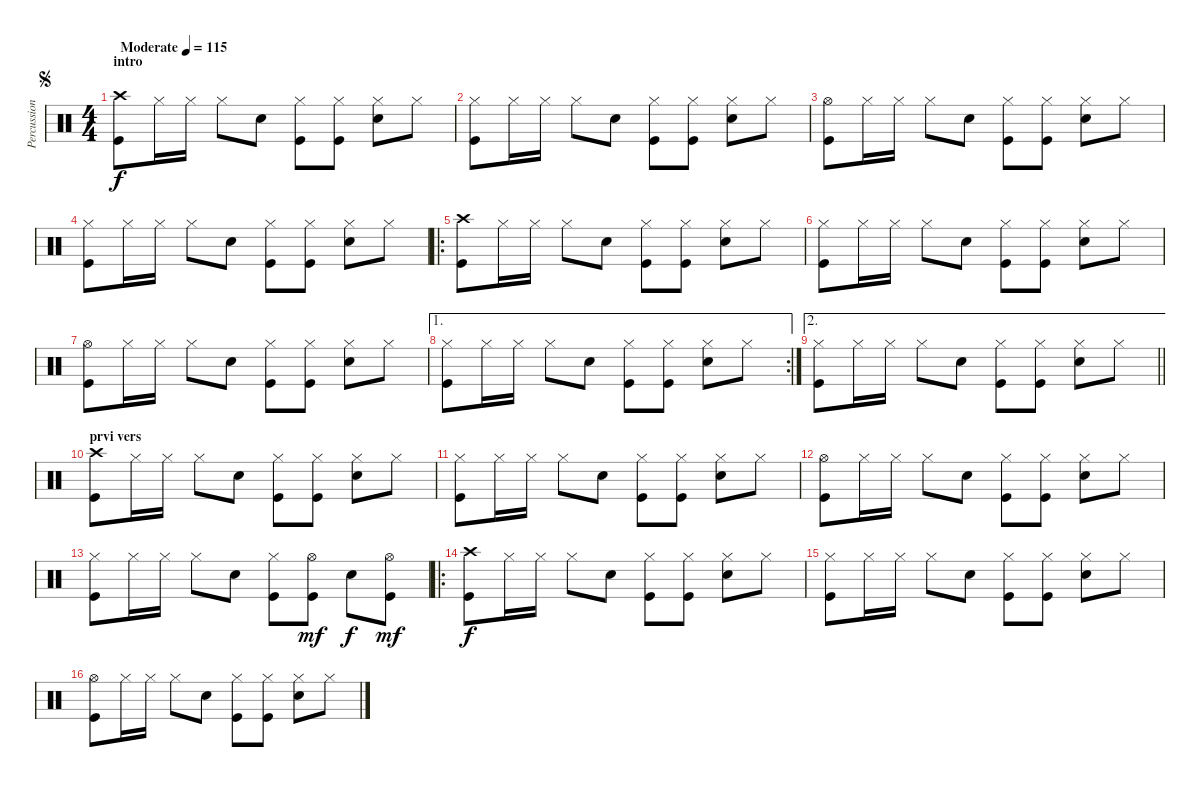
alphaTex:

\track ("Percussion" "Percussion") {instrument percussion}
\staff {score}
\articulation defaults
\ts (4 4)
\section ("" "intro")
\jump segno
\tempo (115 "Moderate")
\clef neutral
\ks c
("Crash high (hit)" "Kick (hit)").8{dy f} "Hi-Hat (closed)".16 "Hi-Hat (closed)".16 "Hi-Hat (closed)".8 "Electric Snare (hit)".8 ("Hi-Hat (closed)" "Kick (hit)").8 ("Hi-Hat (closed)" "Kick (hit)").8 ("Hi-Hat (closed)" "Electric Snare (hit)").8 "Hi-Hat (closed)".8 |
("Hi-Hat (closed)" "Kick (hit)").8 "Hi-Hat (closed)".16 "Hi-Hat (closed)".16 "Hi-Hat (closed)".8 "Electric Snare (hit)".8 ("Hi-Hat (closed)" "Kick (hit)").8 ("Hi-Hat (closed)" "Kick (hit)").8 ("Hi-Hat (closed)" "Electric Snare (hit)").8 "Hi-Hat (closed)".8 |
("Hi-Hat (open)" "Kick (hit)").8 "Hi-Hat (closed)".16 "Hi-Hat (closed)".16 "Hi-Hat (closed)".8 "Electric Snare (hit)".8 ("Hi-Hat (closed)" "Kick (hit)").8 ("Hi-Hat (closed)" "Kick (hit)").8 ("Hi-Hat (closed)" "Electric Snare (hit)").8 "Hi-Hat (closed)".8 |
("Hi-Hat (closed)" "Kick (hit)").8 "Hi-Hat (closed)".16 "Hi-Hat (closed)".16 "Hi-Hat (closed)".8 "Electric Snare (hit)".8 ("Hi-Hat (closed)" "Kick (hit)").8 ("Hi-Hat (closed)" "Kick (hit)").8 ("Hi-Hat (closed)" "Electric Snare (hit)").8 "Hi-Hat (closed)".8 |
\ro
("Crash high (hit)" "Kick (hit)").8 "Hi-Hat (closed)".16 "Hi-Hat (closed)".16 "Hi-Hat (closed)".8 "Electric Snare (hit)".8 ("Hi-Hat (closed)" "Kick (hit)").8 ("Hi-Hat (closed)" "Kick (hit)").8 ("Hi-Hat (closed)" "Electric Snare (hit)").8 "Hi-Hat (closed)".8 |
("Hi-Hat (closed)" "Kick (hit)").8 "Hi-Hat (closed)".16 "Hi-Hat (closed)".16 "Hi-Hat (closed)".8 "Electric Snare (hit)".8 ("Hi-Hat (closed)" "Kick (hit)").8 ("Hi-Hat (closed)" "Kick (hit)").8 ("Hi-Hat (closed)" "Electric Snare (hit)").8 "Hi-Hat (closed)".8 |
("Hi-Hat (open)" "Kick (hit)").8 "Hi-Hat (closed)".16 "Hi-Hat (closed)".16 "Hi-Hat (closed)".8 "Electric Snare (hit)".8 ("Hi-Hat (closed)" "Kick (hit)").8 ("Hi-Hat (closed)" "Kick (hit)").8 ("Hi-Hat (closed)" "Electric Snare (hit)").8 "Hi-Hat (closed)".8 |
\ae 1
\rc 2
("Hi-Hat (closed)" "Kick (hit)").8 "Hi-Hat (closed)".16 "Hi-Hat (closed)".16 "Hi-Hat (closed)".8 "Electric Snare (hit)".8 ("Hi-Hat (closed)" "Kick (hit)").8 ("Hi-Hat (closed)" "Kick (hit)").8 ("Hi-Hat (closed)" "Electric Snare (hit)").8 "Hi-Hat (closed)".8 |
\ae 2
\barLineRight lightlight
("Hi-Hat (closed)" "Kick (hit)").8 "Hi-Hat (closed)".16 "Hi-Hat (closed)".16 "Hi-Hat (closed)".8 "Electric Snare (hit)".8 ("Hi-Hat (closed)" "Kick (hit)").8 ("Hi-Hat (closed)" "Kick (hit)").8 ("Hi-Hat (closed)" "Electric Snare (hit)").8 "Hi-Hat (closed)".8 |
\section ("" "prvi vers")
("Crash high (hit)" "Kick (hit)").8 "Hi-Hat (closed)".16 "Hi-Hat (closed)".16 "Hi-Hat (closed)".8 "Electric Snare (hit)".8 ("Hi-Hat (closed)" "Kick (hit)").8 ("Hi-Hat (closed)" "Kick (hit)").8 ("Hi-Hat (closed)" "Electric Snare (hit)").8 "Hi-Hat (closed)".8 |
("Hi-Hat (closed)" "Kick (hit)").8 "Hi-Hat (closed)".16 "Hi-Hat (closed)".16 "Hi-Hat (closed)".8 "Electric Snare (hit)".8 ("Hi-Hat (closed)" "Kick (hit)").8 ("Hi-Hat (closed)" "Kick (hit)").8 ("Hi-Hat (closed)" "Electric Snare (hit)").8 "Hi-Hat (closed)".8 |
("Hi-Hat (open)" "Kick (hit)").8 "Hi-Hat (closed)".16 "Hi-Hat (closed)".16 "Hi-Hat (closed)".8 "Electric Snare (hit)".8 ("Hi-Hat (closed)" "Kick (hit)").8 ("Hi-Hat (closed)" "Kick (hit)").8 ("Hi-Hat (closed)" "Electric Snare (hit)").8 "Hi-Hat (closed)".8 |
("Hi-Hat (closed)" "Kick (hit)").8 "Hi-Hat (closed)".16 "Hi-Hat (closed)".16 "Hi-Hat (closed)".8 "Electric Snare (hit)".8 ("Hi-Hat (closed)" "Kick (hit)").8 ("Hi-Hat (open)" "Kick (hit)").8{dy mf} "Electric Snare (hit)".8{dy f} ("Hi-Hat (open)" "Kick (hit)").8{dy mf} |
\ro
("Crash high (hit)" "Kick (hit)").8{dy f} "Hi-Hat (closed)".16 "Hi-Hat (closed)".16 "Hi-Hat (closed)".8 "Electric Snare (hit)".8 ("Hi-Hat (closed)" "Kick (hit)").8 ("Hi-Hat (closed)" "Kick (hit)").8 ("Hi-Hat (closed)" "Electric Snare (hit)").8 "Hi-Hat (closed)".8 |
("Hi-Hat (closed)" "Kick (hit)").8 "Hi-Hat (closed)".16 "Hi-Hat (closed)".16 "Hi-Hat (closed)".8 "Electric Snare (hit)".8 ("Hi-Hat (closed)" "Kick (hit)").8 ("Hi-Hat (closed)" "Kick (hit)").8 ("Hi-Hat (closed)" "Electric Snare (hit)").8 "Hi-Hat (closed)".8 |
("Hi-Hat (open)" "Kick (hit)").8 "Hi-Hat (closed)".16 "Hi-Hat (closed)".16 "Hi-Hat (closed)".8 "Electric Snare (hit)".8 ("Hi-Hat (closed)" "Kick (hit)").8 ("Hi-Hat (closed)" "Kick (hit)").8 ("Hi-Hat (closed)" "Electric Snare (hit)").8 "Hi-Hat (closed)".8
